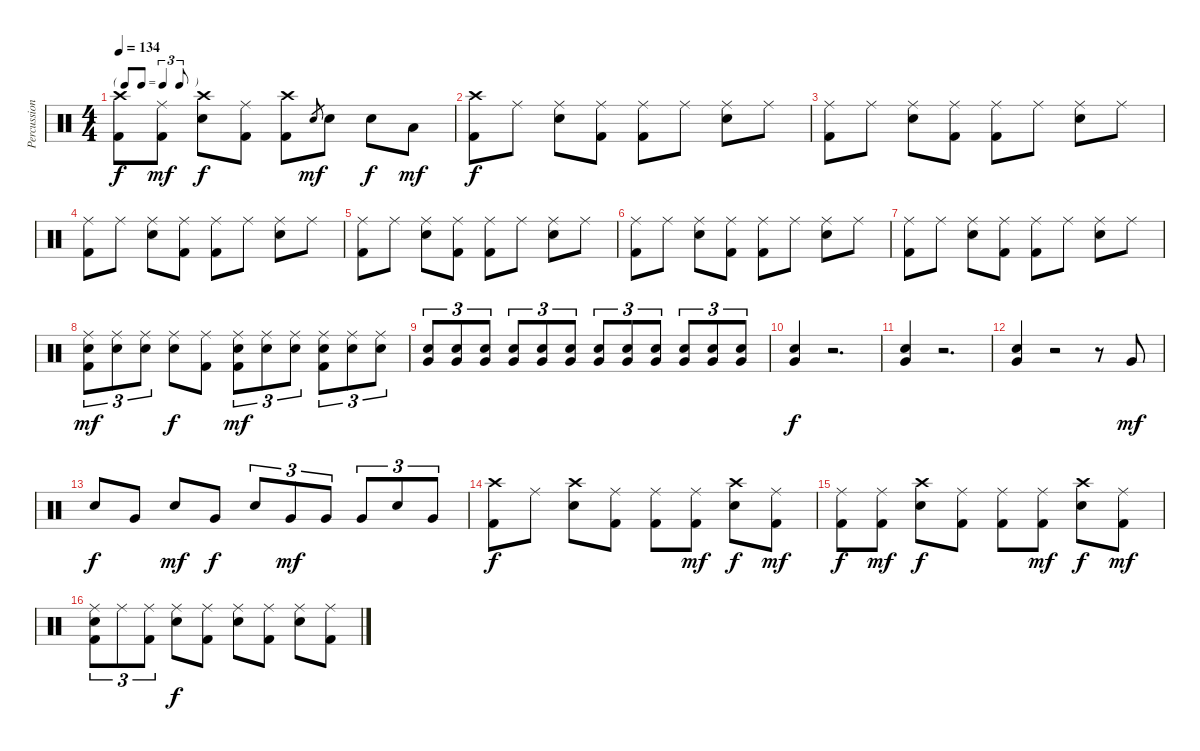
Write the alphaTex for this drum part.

\track ("Percussion" "Percussion") {instrument percussion}
\staff {score}
\articulation defaults
\ts (4 4)
\tf triplet8th
\tempo 134
\clef neutral
\ks c
("Crash high (hit)" "Kick (hit) 2").8{dy f} ("Ride (middle)" "Kick (hit) 2").8{dy mf} ("Crash high (hit)" "Snare (hit) 2").8{dy f} ("Ride (middle)" "Kick (hit) 2").8 ("Crash high (hit)" "Kick (hit) 2").8 "Snare (hit) 2".8{gr dy mf} "Snare (hit) 2".8 "Snare (hit) 2".8{dy f} "Low Tom (hit)".8{dy mf} |
("Crash high (hit)" "Kick (hit) 2").8{dy f} "Ride (middle)".8 ("Ride (middle)" "Snare (hit) 2").8 ("Ride (middle)" "Kick (hit) 2").8 ("Ride (middle)" "Kick (hit) 2").8 "Ride (middle)".8 ("Ride (middle)" "Snare (hit) 2").8 "Ride (middle)".8 |
("Ride (middle)" "Kick (hit) 2").8 "Ride (middle)".8 ("Ride (middle)" "Snare (hit) 2").8 ("Ride (middle)" "Kick (hit) 2").8 ("Ride (middle)" "Kick (hit) 2").8 "Ride (middle)".8 ("Ride (middle)" "Snare (hit) 2").8 "Ride (middle)".8 |
("Ride (middle)" "Kick (hit) 2").8 "Ride (middle)".8 ("Ride (middle)" "Snare (hit) 2").8 ("Ride (middle)" "Kick (hit) 2").8 ("Ride (middle)" "Kick (hit) 2").8 "Ride (middle)".8 ("Ride (middle)" "Snare (hit) 2").8 "Ride (middle)".8 |
("Ride (middle)" "Kick (hit) 2").8 "Ride (middle)".8 ("Ride (middle)" "Snare (hit) 2").8 ("Ride (middle)" "Kick (hit) 2").8 ("Ride (middle)" "Kick (hit) 2").8 "Ride (middle)".8 ("Ride (middle)" "Snare (hit) 2").8 "Ride (middle)".8 |
("Ride (middle)" "Kick (hit) 2").8 "Ride (middle)".8 ("Ride (middle)" "Snare (hit) 2").8 ("Ride (middle)" "Kick (hit) 2").8 ("Ride (middle)" "Kick (hit) 2").8 "Ride (middle)".8 ("Ride (middle)" "Snare (hit) 2").8 "Ride (middle)".8 |
("Ride (middle)" "Kick (hit) 2").8 "Ride (middle)".8 ("Ride (middle)" "Snare (hit) 2").8 ("Ride (middle)" "Kick (hit) 2").8 ("Ride (middle)" "Kick (hit) 2").8 "Ride (middle)".8 ("Ride (middle)" "Snare (hit) 2").8 "Ride (middle)".8 |
("Ride (middle)" "Snare (hit) 2" "Kick (hit) 2").8{tu (3 2) dy mf} ("Ride (middle)" "Snare (hit) 2").8{tu (3 2)} ("Ride (middle)" "Snare (hit) 2").8{tu (3 2)} ("Ride (middle)" "Snare (hit) 2").8{dy f} ("Ride (middle)" "Kick (hit) 2").8 ("Ride (middle)" "Snare (hit) 2" "Kick (hit) 2").8{tu (3 2) dy mf} ("Ride (middle)" "Snare (hit) 2").8{tu (3 2)} ("Ride (middle)" "Snare (hit) 2").8{tu (3 2)} ("Ride (middle)" "Snare (hit) 2" "Kick (hit) 2").8{tu (3 2)} ("Ride (middle)" "Snare (hit) 2").8{tu (3 2)} ("Ride (middle)" "Snare (hit) 2").8{tu (3 2)} |
("Snare (hit) 2" "Very Low Tom (hit)").8{tu (3 2)} ("Snare (hit) 2" "Very Low Tom (hit)").8{tu (3 2)} ("Snare (hit) 2" "Very Low Tom (hit)").8{tu (3 2)} ("Snare (hit) 2" "Very Low Tom (hit)").8{tu (3 2)} ("Snare (hit) 2" "Very Low Tom (hit)").8{tu (3 2)} ("Snare (hit) 2" "Very Low Tom (hit)").8{tu (3 2)} ("Snare (hit) 2" "Very Low Tom (hit)").8{tu (3 2)} ("Snare (hit) 2" "Very Low Tom (hit)").8{tu (3 2)} ("Snare (hit) 2" "Very Low Tom (hit)").8{tu (3 2)} ("Snare (hit) 2" "Very Low Tom (hit)").8{tu (3 2)} ("Snare (hit) 2" "Very Low Tom (hit)").8{tu (3 2)} ("Snare (hit) 2" "Very Low Tom (hit)").8{tu (3 2)} |
("Snare (hit) 2" "Very Low Tom (hit)").4{dy f} r.2{d} |
("Snare (hit) 2" "Very Low Tom (hit)").4 r.2{d} |
("Snare (hit) 2" "Very Low Tom (hit)").4 r.2 r.8 "Very Low Tom (hit)".8{dy mf} |
"Snare (hit) 2".8{dy f} "Very Low Tom (hit)".8 "Snare (hit) 2".8{dy mf} "Very Low Tom (hit)".8{dy f} "Snare (hit) 2".8{tu (3 2)} "Very Low Tom (hit)".8{tu (3 2) dy mf} "Very Low Tom (hit)".8{tu (3 2)} "Very Low Tom (hit)".8{tu (3 2)} "Snare (hit) 2".8{tu (3 2)} "Very Low Tom (hit)".8{tu (3 2)} |
("Crash high (hit)" "Kick (hit) 2").8{dy f} "Ride (middle)".8 ("Crash high (hit)" "Snare (hit) 2").8 ("Ride (middle)" "Kick (hit) 2").8 ("Ride (middle)" "Kick (hit) 2").8 ("Ride (middle)" "Kick (hit) 2").8{dy mf} ("Crash high (hit)" "Snare (hit) 2").8{dy f} ("Ride (middle)" "Kick (hit) 2").8{dy mf} |
("Ride (middle)" "Kick (hit) 2").8{dy f} ("Ride (middle)" "Kick (hit) 2").8{dy mf} ("Crash high (hit)" "Snare (hit) 2").8{dy f} ("Ride (middle)" "Kick (hit) 2").8 ("Ride (middle)" "Kick (hit) 2").8 ("Ride (middle)" "Kick (hit) 2").8{dy mf} ("Crash high (hit)" "Snare (hit) 2").8{dy f} ("Ride (middle)" "Kick (hit) 2").8{dy mf} |
("Ride (middle)" "Snare (hit) 2" "Kick (hit) 2").8{tu (3 2)} "Ride (middle)".8{tu (3 2)} ("Ride (middle)" "Kick (hit) 2").8{tu (3 2)} ("Ride (middle)" "Snare (hit) 2").8{dy f} ("Ride (middle)" "Kick (hit) 2").8 ("Ride (middle)" "Snare (hit) 2").8 ("Ride (middle)" "Kick (hit) 2").8 ("Ride (middle)" "Snare (hit) 2").8 ("Ride (middle)" "Kick (hit) 2").8
